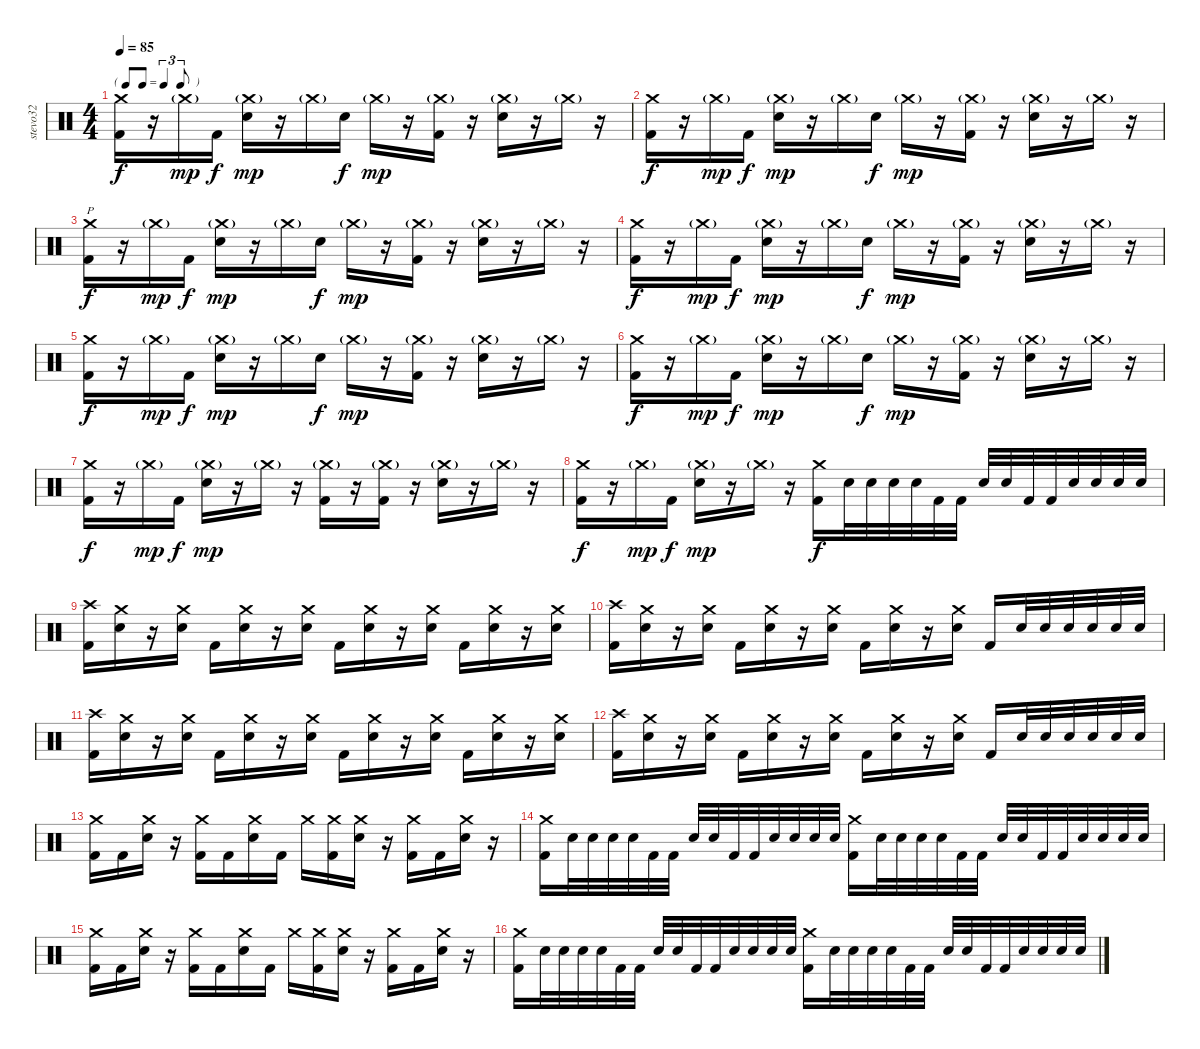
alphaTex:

\track ("stevo32" "stevo32") {instrument percussion}
\staff {score}
\articulation defaults
\ts (4 4)
\tf triplet8th
\tempo 85
\clef neutral
\ks c
("Crash medium (hit)" "Kick (hit) 2").16{dy f} r.16 "Crash medium (hit)"{g}.16{dy mp} "Kick (hit) 2".16{dy f} ("Crash medium (hit)"{g} "Electric Snare (hit)").16{dy mp} r.16 "Crash medium (hit)"{g}.16 "Electric Snare (hit)".16{dy f} "Crash medium (hit)"{g}.16{dy mp} r.16 ("Crash medium (hit)"{g} "Kick (hit) 2").16 r.16 ("Crash medium (hit)"{g} "Electric Snare (hit)").16 r.16 "Crash medium (hit)"{g}.16 r.16 |
("Crash medium (hit)" "Kick (hit) 2").16{dy f} r.16 "Crash medium (hit)"{g}.16{dy mp} "Kick (hit) 2".16{dy f} ("Crash medium (hit)"{g} "Electric Snare (hit)").16{dy mp} r.16 "Crash medium (hit)"{g}.16 "Electric Snare (hit)".16{dy f} "Crash medium (hit)"{g}.16{dy mp} r.16 ("Crash medium (hit)"{g} "Kick (hit) 2").16 r.16 ("Crash medium (hit)"{g} "Electric Snare (hit)").16 r.16 "Crash medium (hit)"{g}.16 r.16 |
("Crash medium (hit)" "Kick (hit) 2").16{p dy f} r.16 "Crash medium (hit)"{g}.16{dy mp} "Kick (hit) 2".16{dy f} ("Crash medium (hit)"{g} "Electric Snare (hit)").16{dy mp} r.16 "Crash medium (hit)"{g}.16 "Electric Snare (hit)".16{dy f} "Crash medium (hit)"{g}.16{dy mp} r.16 ("Crash medium (hit)"{g} "Kick (hit) 2").16 r.16 ("Crash medium (hit)"{g} "Electric Snare (hit)").16 r.16 "Crash medium (hit)"{g}.16 r.16 |
("Crash medium (hit)" "Kick (hit) 2").16{dy f} r.16 "Crash medium (hit)"{g}.16{dy mp} "Kick (hit) 2".16{dy f} ("Crash medium (hit)"{g} "Electric Snare (hit)").16{dy mp} r.16 "Crash medium (hit)"{g}.16 "Electric Snare (hit)".16{dy f} "Crash medium (hit)"{g}.16{dy mp} r.16 ("Crash medium (hit)"{g} "Kick (hit) 2").16 r.16 ("Crash medium (hit)"{g} "Electric Snare (hit)").16 r.16 "Crash medium (hit)"{g}.16 r.16 |
("Crash medium (hit)" "Kick (hit) 2").16{dy f} r.16 "Crash medium (hit)"{g}.16{dy mp} "Kick (hit) 2".16{dy f} ("Crash medium (hit)"{g} "Electric Snare (hit)").16{dy mp} r.16 "Crash medium (hit)"{g}.16 "Electric Snare (hit)".16{dy f} "Crash medium (hit)"{g}.16{dy mp} r.16 ("Crash medium (hit)"{g} "Kick (hit) 2").16 r.16 ("Crash medium (hit)"{g} "Electric Snare (hit)").16 r.16 "Crash medium (hit)"{g}.16 r.16 |
("Crash medium (hit)" "Kick (hit) 2").16{dy f} r.16 "Crash medium (hit)"{g}.16{dy mp} "Kick (hit) 2".16{dy f} ("Crash medium (hit)"{g} "Electric Snare (hit)").16{dy mp} r.16 "Crash medium (hit)"{g}.16 "Electric Snare (hit)".16{dy f} "Crash medium (hit)"{g}.16{dy mp} r.16 ("Crash medium (hit)"{g} "Kick (hit) 2").16 r.16 ("Crash medium (hit)"{g} "Electric Snare (hit)").16 r.16 "Crash medium (hit)"{g}.16 r.16 |
("Crash medium (hit)" "Kick (hit) 2").16{dy f} r.16 "Crash medium (hit)"{g}.16{dy mp} "Kick (hit) 2".16{dy f} ("Crash medium (hit)"{g} "Electric Snare (hit)").16{dy mp} r.16 "Crash medium (hit)"{g}.16 r.16 ("Crash medium (hit)"{g} "Kick (hit) 2").16 r.16 ("Crash medium (hit)"{g} "Kick (hit) 2").16 r.16 ("Crash medium (hit)"{g} "Electric Snare (hit)").16 r.16 "Crash medium (hit)"{g}.16 r.16 |
("Crash medium (hit)" "Kick (hit) 2").16{dy f} r.16 "Crash medium (hit)"{g}.16{dy mp} "Kick (hit) 2".16{dy f} ("Crash medium (hit)"{g} "Electric Snare (hit)").16{dy mp} r.16 "Crash medium (hit)"{g}.16 r.16 ("Crash medium (hit)" "Kick (hit) 2").16{dy f} "Electric Snare (hit)".32 "Electric Snare (hit)".32 "Electric Snare (hit)".32 "Electric Snare (hit)".32 "Kick (hit) 2".32 "Kick (hit) 2".32 "Electric Snare (hit)".32 "Electric Snare (hit)".32 "Kick (hit) 2".32 "Kick (hit) 2".32 "Electric Snare (hit)".32 "Electric Snare (hit)".32 "Electric Snare (hit)".32 "Electric Snare (hit)".32 |
("Crash high (hit)" "Kick (hit) 2").16 ("Crash medium (hit)" "Electric Snare (hit)").16 r.16 ("Crash medium (hit)" "Electric Snare (hit)").16 "Kick (hit) 2".16 ("Crash medium (hit)" "Electric Snare (hit)").16 r.16 ("Crash medium (hit)" "Electric Snare (hit)").16 "Kick (hit) 2".16 ("Crash medium (hit)" "Electric Snare (hit)").16 r.16 ("Crash medium (hit)" "Electric Snare (hit)").16 "Kick (hit) 2".16 ("Crash medium (hit)" "Electric Snare (hit)").16 r.16 ("Crash medium (hit)" "Electric Snare (hit)").16 |
("Crash high (hit)" "Kick (hit) 2").16 ("Crash medium (hit)" "Electric Snare (hit)").16 r.16 ("Crash medium (hit)" "Electric Snare (hit)").16 "Kick (hit) 2".16 ("Crash medium (hit)" "Electric Snare (hit)").16 r.16 ("Crash medium (hit)" "Electric Snare (hit)").16 "Kick (hit) 2".16 ("Crash medium (hit)" "Electric Snare (hit)").16 r.16 ("Crash medium (hit)" "Electric Snare (hit)").16 "Kick (hit) 2".16 "Electric Snare (hit)".32 "Electric Snare (hit)".32 "Electric Snare (hit)".32 "Electric Snare (hit)".32 "Electric Snare (hit)".32 "Electric Snare (hit)".32 |
("Crash high (hit)" "Kick (hit) 2").16 ("Crash medium (hit)" "Electric Snare (hit)").16 r.16 ("Crash medium (hit)" "Electric Snare (hit)").16 "Kick (hit) 2".16 ("Crash medium (hit)" "Electric Snare (hit)").16 r.16 ("Crash medium (hit)" "Electric Snare (hit)").16 "Kick (hit) 2".16 ("Crash medium (hit)" "Electric Snare (hit)").16 r.16 ("Crash medium (hit)" "Electric Snare (hit)").16 "Kick (hit) 2".16 ("Crash medium (hit)" "Electric Snare (hit)").16 r.16 ("Crash medium (hit)" "Electric Snare (hit)").16 |
("Crash high (hit)" "Kick (hit) 2").16 ("Crash medium (hit)" "Electric Snare (hit)").16 r.16 ("Crash medium (hit)" "Electric Snare (hit)").16 "Kick (hit) 2".16 ("Crash medium (hit)" "Electric Snare (hit)").16 r.16 ("Crash medium (hit)" "Electric Snare (hit)").16 "Kick (hit) 2".16 ("Crash medium (hit)" "Electric Snare (hit)").16 r.16 ("Crash medium (hit)" "Electric Snare (hit)").16 "Kick (hit) 2".16 "Electric Snare (hit)".32 "Electric Snare (hit)".32 "Electric Snare (hit)".32 "Electric Snare (hit)".32 "Electric Snare (hit)".32 "Electric Snare (hit)".32 |
("Crash medium (hit)" "Kick (hit) 2").16 "Kick (hit) 2".16 ("Crash medium (hit)" "Electric Snare (hit)").16 r.16 ("Crash medium (hit)" "Kick (hit) 2").16 "Kick (hit) 2".16 ("Crash medium (hit)" "Electric Snare (hit)").16 "Kick (hit) 2".16 "Crash medium (hit)".16 ("Crash medium (hit)" "Kick (hit) 2").16 ("Crash medium (hit)" "Electric Snare (hit)").16 r.16 ("Crash medium (hit)" "Kick (hit) 2").16 "Kick (hit) 2".16 ("Crash medium (hit)" "Electric Snare (hit)").16 r.16 |
("Crash medium (hit)" "Kick (hit) 2").16 "Electric Snare (hit)".32 "Electric Snare (hit)".32 "Electric Snare (hit)".32 "Electric Snare (hit)".32 "Kick (hit) 2".32 "Kick (hit) 2".32 "Electric Snare (hit)".32 "Electric Snare (hit)".32 "Kick (hit) 2".32 "Kick (hit) 2".32 "Electric Snare (hit)".32 "Electric Snare (hit)".32 "Electric Snare (hit)".32 "Electric Snare (hit)".32 ("Crash medium (hit)" "Kick (hit) 2").16 "Electric Snare (hit)".32 "Electric Snare (hit)".32 "Snare (hit)".32 "Snare (hit)".32 "Kick (hit) 2".32 "Kick (hit) 2".32 "Electric Snare (hit)".32 "Electric Snare (hit)".32 "Kick (hit) 2".32 "Kick (hit) 2".32 "Electric Snare (hit)".32 "Electric Snare (hit)".32 "Electric Snare (hit)".32 "Electric Snare (hit)".32 |
("Crash medium (hit)" "Kick (hit) 2").16 "Kick (hit) 2".16 ("Crash medium (hit)" "Electric Snare (hit)").16 r.16 ("Crash medium (hit)" "Kick (hit) 2").16 "Kick (hit) 2".16 ("Crash medium (hit)" "Electric Snare (hit)").16 "Kick (hit) 2".16 "Crash medium (hit)".16 ("Crash medium (hit)" "Kick (hit) 2").16 ("Crash medium (hit)" "Electric Snare (hit)").16 r.16 ("Crash medium (hit)" "Kick (hit) 2").16 "Kick (hit) 2".16 ("Crash medium (hit)" "Electric Snare (hit)").16 r.16 |
("Crash medium (hit)" "Kick (hit) 2").16 "Electric Snare (hit)".32 "Electric Snare (hit)".32 "Electric Snare (hit)".32 "Electric Snare (hit)".32 "Kick (hit) 2".32 "Kick (hit) 2".32 "Electric Snare (hit)".32 "Electric Snare (hit)".32 "Kick (hit) 2".32 "Kick (hit) 2".32 "Electric Snare (hit)".32 "Electric Snare (hit)".32 "Electric Snare (hit)".32 "Electric Snare (hit)".32 ("Crash medium (hit)" "Kick (hit) 2").16 "Electric Snare (hit)".32 "Electric Snare (hit)".32 "Snare (hit)".32 "Snare (hit)".32 "Kick (hit) 2".32 "Kick (hit) 2".32 "Electric Snare (hit)".32 "Electric Snare (hit)".32 "Kick (hit) 2".32 "Kick (hit) 2".32 "Electric Snare (hit)".32 "Electric Snare (hit)".32 "Electric Snare (hit)".32 "Electric Snare (hit)".32
